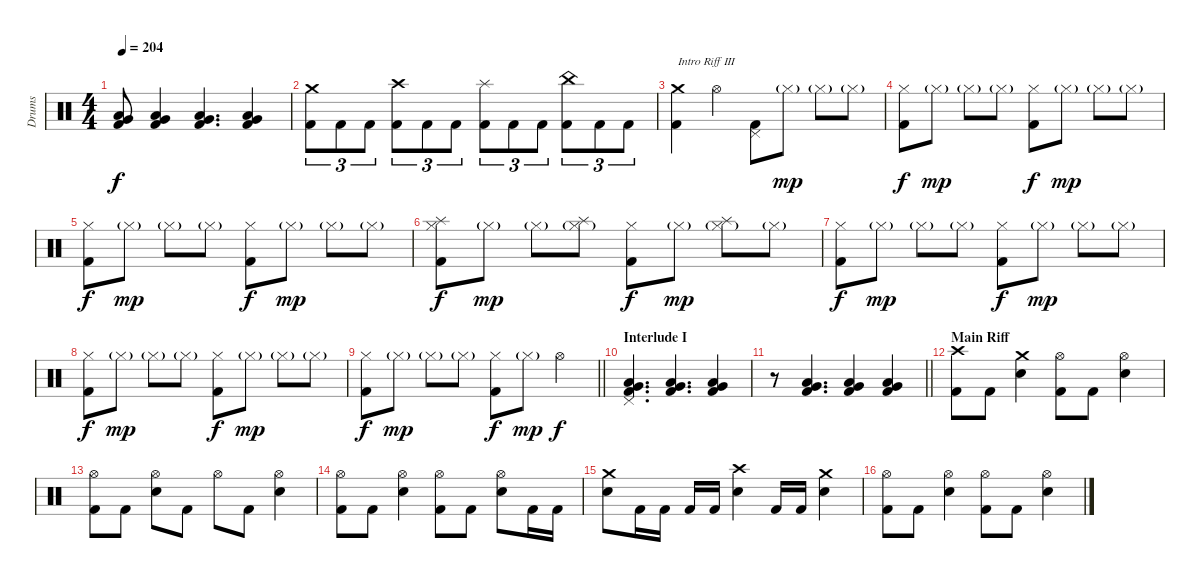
\track ("Drums" "Drums") {instrument percussion}
\staff {score}
\articulation defaults
\ts (4 4)
\tempo 204
\clef neutral
\ks c
("Very Low Tom (hit)" "Low Floor Tom (hit)" "Kick (hit) 2").8{dy f} ("Very Low Tom (hit)" "Low Floor Tom (hit)" "Kick (hit) 2").4 ("Very Low Tom (hit)" "Low Floor Tom (hit)" "Kick (hit) 2").4{d} ("Very Low Tom (hit)" "Low Floor Tom (hit)" "Kick (hit) 2").4 |
("Crash medium (hit)" "Kick (hit) 2").8{tu (3 2)} "Kick (hit) 2".8{tu (3 2)} "Kick (hit) 2".8{tu (3 2)} ("Crash high (hit)" "Kick (hit) 2").8{tu (3 2)} "Kick (hit) 2".8{tu (3 2)} "Kick (hit) 2".8{tu (3 2)} ("Splash (hit)" "Kick (hit) 2").8{tu (3 2)} "Kick (hit) 2".8{tu (3 2)} "Kick (hit) 2".8{tu (3 2)} ("China (hit)" "Kick (hit) 2").8{tu (3 2)} "Kick (hit) 2".8{tu (3 2)} "Kick (hit) 2".8{tu (3 2)} |
("Crash medium (hit)" "Kick (hit) 2").4{txt "Intro Riff III"} "Hi-Hat (open)".4 ("Pedal Hi-Hat (hit)" "Kick (hit) 2").8 "Hi-Hat (closed)"{g}.8{dy mp} "Hi-Hat (closed)"{g}.8 "Hi-Hat (closed)"{g}.8 |
("Hi-Hat (closed)" "Kick (hit) 2").8{dy f} "Hi-Hat (closed)"{g}.8{dy mp} "Hi-Hat (closed)"{g}.8 "Hi-Hat (closed)"{g}.8 ("Hi-Hat (closed)" "Kick (hit) 2").8{dy f} "Hi-Hat (closed)"{g}.8{dy mp} "Hi-Hat (closed)"{g}.8 "Hi-Hat (closed)"{g}.8 |
("Hi-Hat (closed)" "Kick (hit) 2").8{dy f} "Hi-Hat (closed)"{g}.8{dy mp} "Hi-Hat (closed)"{g}.8 "Hi-Hat (closed)"{g}.8 ("Hi-Hat (closed)" "Kick (hit) 2").8{dy f} "Hi-Hat (closed)"{g}.8{dy mp} "Hi-Hat (closed)"{g}.8 "Hi-Hat (closed)"{g}.8 |
("Splash (hit)" "Hi-Hat (closed)" "Kick (hit) 2").8{dy f} "Hi-Hat (closed)"{g}.8{dy mp} "Hi-Hat (closed)"{g}.8 ("Splash (hit)" "Hi-Hat (closed)"{g}).8 ("Hi-Hat (closed)" "Kick (hit) 2").8{dy f} "Hi-Hat (closed)"{g}.8{dy mp} ("Splash (hit)" "Hi-Hat (closed)"{g}).8 "Hi-Hat (closed)"{g}.8 |
("Hi-Hat (closed)" "Kick (hit) 2").8{dy f} "Hi-Hat (closed)"{g}.8{dy mp} "Hi-Hat (closed)"{g}.8 "Hi-Hat (closed)"{g}.8 ("Hi-Hat (closed)" "Kick (hit) 2").8{dy f} "Hi-Hat (closed)"{g}.8{dy mp} "Hi-Hat (closed)"{g}.8 "Hi-Hat (closed)"{g}.8 |
("Hi-Hat (closed)" "Kick (hit) 2").8{dy f} "Hi-Hat (closed)"{g}.8{dy mp} "Hi-Hat (closed)"{g}.8 "Hi-Hat (closed)"{g}.8 ("Hi-Hat (closed)" "Kick (hit) 2").8{dy f} "Hi-Hat (closed)"{g}.8{dy mp} "Hi-Hat (closed)"{g}.8 "Hi-Hat (closed)"{g}.8 |
\barLineRight lightlight
("Hi-Hat (closed)" "Kick (hit) 2").8{dy f} "Hi-Hat (closed)"{g}.8{dy mp} "Hi-Hat (closed)"{g}.8 "Hi-Hat (closed)"{g}.8 ("Hi-Hat (closed)" "Kick (hit) 2").8{dy f} "Hi-Hat (closed)"{g}.8{dy mp} "Hi-Hat (open)".4{dy f} |
\section ("" "Interlude I")
("Pedal Hi-Hat (hit)" "Very Low Tom (hit)" "Low Floor Tom (hit)" "Kick (hit) 2").4{d} ("Very Low Tom (hit)" "Low Floor Tom (hit)" "Kick (hit) 2").4{d} ("Very Low Tom (hit)" "Low Floor Tom (hit)" "Kick (hit) 2").4 |
\barLineRight lightlight
r.8 ("Very Low Tom (hit)" "Low Floor Tom (hit)" "Kick (hit) 2").4{d} ("Very Low Tom (hit)" "Low Floor Tom (hit)" "Kick (hit) 2").4 ("Very Low Tom (hit)" "Low Floor Tom (hit)" "Kick (hit) 2").4 |
\section ("" "Main Riff")
("Crash high (hit)" "Kick (hit) 2").8 "Kick (hit) 2".8 ("Crash medium (hit)" "Electric Snare (hit)").4 ("Hi-Hat (open)" "Kick (hit) 2").8 "Kick (hit) 2".8 ("Hi-Hat (open)" "Electric Snare (hit)").4 |
("Hi-Hat (open)" "Kick (hit) 2").8 "Kick (hit) 2".8 ("Hi-Hat (open)" "Electric Snare (hit)").8 "Kick (hit) 2".8 "Hi-Hat (open)".8 "Kick (hit) 2".8 ("Hi-Hat (open)" "Electric Snare (hit)").4 |
("Hi-Hat (open)" "Kick (hit) 2").8 "Kick (hit) 2".8 ("Hi-Hat (open)" "Electric Snare (hit)").4 ("Hi-Hat (open)" "Kick (hit) 2").8 "Kick (hit) 2".8 ("Hi-Hat (open)" "Electric Snare (hit)").8 "Kick (hit) 2".16 "Kick (hit) 2".16 |
("Crash medium (hit)" "Electric Snare (hit)").8 "Kick (hit) 2".16 "Kick (hit) 2".16 "Kick (hit) 2".16 "Kick (hit) 2".16 ("Crash high (hit)" "Electric Snare (hit)").4 "Kick (hit) 2".16 "Kick (hit) 2".16 ("Crash medium (hit)" "Electric Snare (hit)").4 |
("Hi-Hat (open)" "Kick (hit) 2").8 "Kick (hit) 2".8 ("Hi-Hat (open)" "Electric Snare (hit)").4 ("Hi-Hat (open)" "Kick (hit) 2").8 "Kick (hit) 2".8 ("Hi-Hat (open)" "Electric Snare (hit)").4
